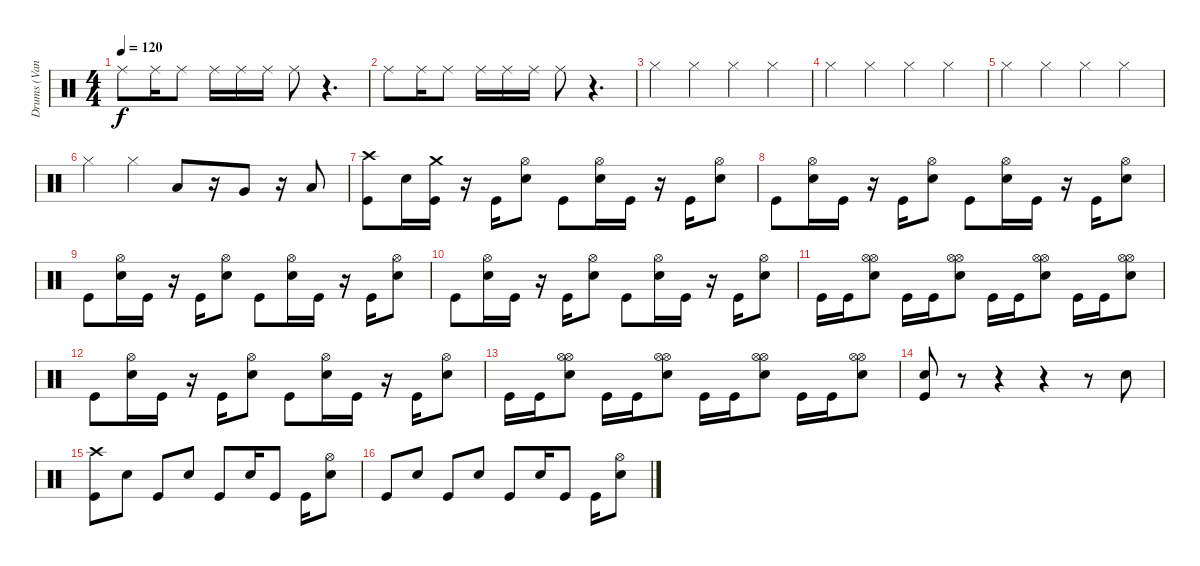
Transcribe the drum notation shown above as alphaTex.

\track ("Drums (Vandel)" "Drums (Van") {instrument percussion}
\staff {score}
\articulation defaults
\ts (4 4)
\tempo 120
\clef neutral
\ks c "Ride (middle)".8{dy f} "Ride (middle)".16 "Ride (middle)".8 "Ride (middle)".16 "Ride (middle)".16 "Ride (middle)".16 "Ride (middle)".8
r.4{d} |
"Ride (middle)".8 "Ride (middle)".16 "Ride (middle)".8 "Ride (middle)".16 "Ride (middle)".16 "Ride (middle)".16 "Ride (middle)".8 r.4{d} |
"Hi-Hat (closed)".4 "Hi-Hat (closed)".4 "Hi-Hat (closed)".4 "Hi-Hat (closed)".4 |
"Hi-Hat (closed)".4 "Hi-Hat (closed)".4 "Hi-Hat (closed)".4 "Hi-Hat (closed)".4 |
"Hi-Hat (closed)".4 "Hi-Hat (closed)".4 "Hi-Hat (closed)".4 "Hi-Hat (closed)".4 |
"Hi-Hat (closed)".4 "Hi-Hat (closed)".4 "Low Tom (hit)".8 r.16 "Very Low Tom (hit)".8 r.16 "Low Floor Tom (hit)".8 |
("Crash high (hit)" "Kick (hit)").8 "Snare (hit) 2".16 ("Crash medium (hit)" "Kick (hit)").16 r.16 "Kick (hit)".16 ("Hi-Hat (open)" "Snare (hit) 2").8 "Kick (hit)".8 ("Hi-Hat (open)" "Snare (hit) 2").16 "Kick (hit)".16 r.16 "Kick (hit)".16 ("Hi-Hat (open)" "Snare (hit) 2").8 |
"Kick (hit)".8 ("Hi-Hat (open)" "Snare (hit) 2").16 "Kick (hit)".16 r.16 "Kick (hit)".16 ("Hi-Hat (open)" "Snare (hit) 2").8 "Kick (hit)".8 ("Hi-Hat (open)" "Snare (hit) 2").16 "Kick (hit)".16 r.16 "Kick (hit)".16 ("Hi-Hat (open)" "Snare (hit) 2").8 |
"Kick (hit)".8 ("Hi-Hat (open)" "Snare (hit) 2").16 "Kick (hit)".16 r.16 "Kick (hit)".16 ("Hi-Hat (open)" "Snare (hit) 2").8 "Kick (hit)".8 ("Hi-Hat (open)" "Snare (hit) 2").16 "Kick (hit)".16 r.16 "Kick (hit)".16 ("Hi-Hat (open)" "Snare (hit) 2").8 |
"Kick (hit)".8 ("Hi-Hat (open)" "Snare (hit) 2").16 "Kick (hit)".16 r.16 "Kick (hit)".16 ("Hi-Hat (open)" "Snare (hit) 2").8 "Kick (hit)".8 ("Hi-Hat (open)" "Snare (hit) 2").16 "Kick (hit)".16 r.16 "Kick (hit)".16 ("Hi-Hat (open)" "Snare (hit) 2").8 |
"Kick (hit)".16 "Kick (hit)".16 ("Hi-Hat (open)" "Hi-Hat (open)" "Snare (hit) 2").8 "Kick (hit)".16 "Kick (hit)".16 ("Hi-Hat (open)" "Hi-Hat (open)" "Snare (hit) 2").8 "Kick (hit)".16 "Kick (hit)".16 ("Hi-Hat (open)" "Hi-Hat (open)" "Snare (hit) 2").8 "Kick (hit)".16 "Kick (hit)".16 ("Hi-Hat (open)" "Hi-Hat (open)" "Snare (hit) 2").8 |
"Kick (hit)".8 ("Hi-Hat (open)" "Snare (hit) 2").16 "Kick (hit)".16 r.16 "Kick (hit)".16 ("Hi-Hat (open)" "Snare (hit) 2").8 "Kick (hit)".8 ("Hi-Hat (open)" "Snare (hit) 2").16 "Kick (hit)".16 r.16 "Kick (hit)".16 ("Hi-Hat (open)" "Snare (hit) 2").8 |
"Kick (hit)".16 "Kick (hit)".16 ("Hi-Hat (open)" "Hi-Hat (open)" "Snare (hit) 2").8 "Kick (hit)".16 "Kick (hit)".16 ("Hi-Hat (open)" "Hi-Hat (open)" "Snare (hit) 2").8 "Kick (hit)".16 "Kick (hit)".16 ("Hi-Hat (open)" "Hi-Hat (open)" "Snare (hit) 2").8 "Kick (hit)".16 "Kick (hit)".16 ("Hi-Hat (open)" "Hi-Hat (open)" "Snare (hit) 2").8 |
("Snare (hit) 2" "Kick (hit)").8 r.8 r.4 r.4 r.8 "Snare (hit) 2".8 |
("Crash high (hit)" "Kick (hit)").8 "Snare (hit) 2".8 "Kick (hit)".8 "Snare (hit) 2".8 "Kick (hit)".8 "Snare (hit) 2".16 "Kick (hit)".8 "Kick (hit)".16 ("Hi-Hat (open)" "Snare (hit) 2").8 |
"Kick (hit)".8 "Snare (hit) 2".8 "Kick (hit)".8 "Snare (hit) 2".8 "Kick (hit)".8 "Snare (hit) 2".16 "Kick (hit)".8 "Kick (hit)".16 ("Hi-Hat (open)" "Snare (hit) 2").8
